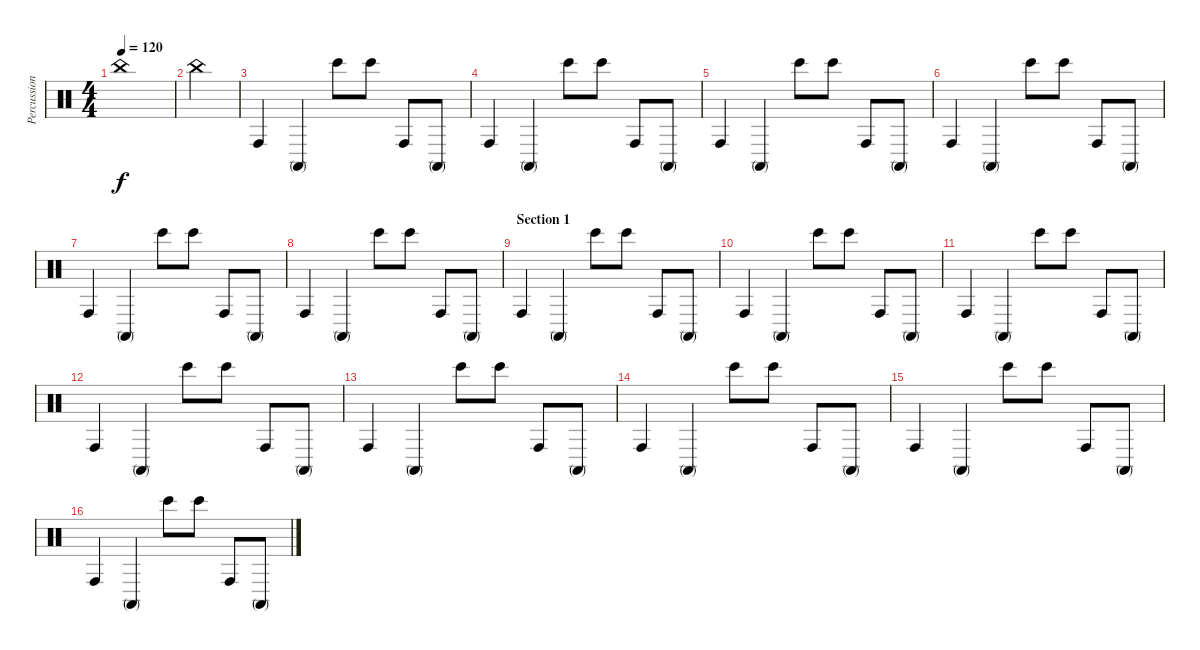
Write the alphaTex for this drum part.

\track ("Percussions" "Percussion") {instrument percussion}
\staff {score}
\articulation defaults
\ts (4 4)
\tempo 120
\clef neutral
\ks c "China (hit)".1{dy f}
|
"China (hit)".4 |
"Conga high (hit)".4 "Conga high (mute)".4 "Bongo High (hit)".8 "Bongo High (hit)".8 "Conga high (hit)".8 "Conga high (mute)".8 |
"Conga high (hit)".4 "Conga high (mute)".4 "Bongo High (hit)".8 "Bongo High (hit)".8 "Conga high (hit)".8 "Conga high (mute)".8 |
"Conga high (hit)".4 "Conga high (mute)".4 "Bongo High (hit)".8 "Bongo High (hit)".8 "Conga high (hit)".8 "Conga high (mute)".8 |
"Conga high (hit)".4 "Conga high (mute)".4 "Bongo High (hit)".8 "Bongo High (hit)".8 "Conga high (hit)".8 "Conga high (mute)".8 |
"Conga high (hit)".4 "Conga high (mute)".4 "Bongo High (hit)".8 "Bongo High (hit)".8 "Conga high (hit)".8 "Conga high (mute)".8 |
"Conga high (hit)".4 "Conga high (mute)".4 "Bongo High (hit)".8 "Bongo High (hit)".8 "Conga high (hit)".8 "Conga high (mute)".8 |
\section ("" "Section 1")
"Conga high (hit)".4 "Conga high (mute)".4 "Bongo High (hit)".8 "Bongo High (hit)".8 "Conga high (hit)".8 "Conga high (mute)".8 |
"Conga high (hit)".4 "Conga high (mute)".4 "Bongo High (hit)".8 "Bongo High (hit)".8 "Conga high (hit)".8 "Conga high (mute)".8 |
"Conga high (hit)".4 "Conga high (mute)".4 "Bongo High (hit)".8 "Bongo High (hit)".8 "Conga high (hit)".8 "Conga high (mute)".8 |
"Conga high (hit)".4 "Conga high (mute)".4 "Bongo High (hit)".8 "Bongo High (hit)".8 "Conga high (hit)".8 "Conga high (mute)".8 |
"Conga high (hit)".4 "Conga high (mute)".4 "Bongo High (hit)".8 "Bongo High (hit)".8 "Conga high (hit)".8 "Conga high (mute)".8 |
"Conga high (hit)".4 "Conga high (mute)".4 "Bongo High (hit)".8 "Bongo High (hit)".8 "Conga high (hit)".8 "Conga high (mute)".8 |
"Conga high (hit)".4 "Conga high (mute)".4 "Bongo High (hit)".8 "Bongo High (hit)".8 "Conga high (hit)".8 "Conga high (mute)".8 |
"Conga high (hit)".4 "Conga high (mute)".4 "Bongo High (hit)".8 "Bongo High (hit)".8 "Conga high (hit)".8 "Conga high (mute)".8
